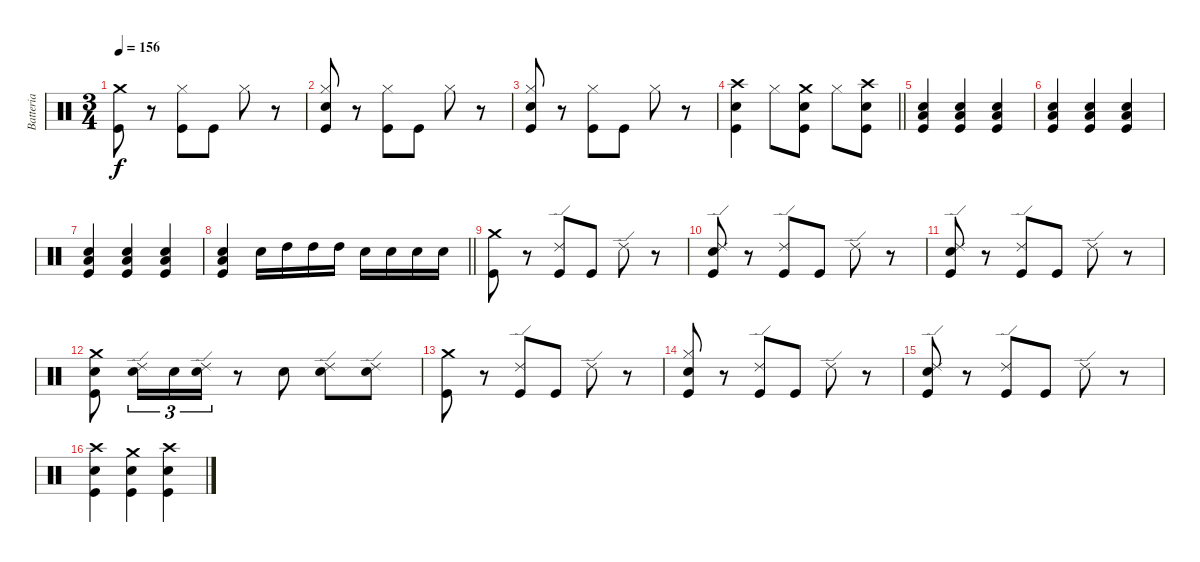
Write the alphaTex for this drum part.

\track ("Batteria" "Batteria") {instrument percussion}
\staff {score}
\articulation defaults
\ts (3 4)
\tempo 156
\clef neutral
\ks c
("Crash medium (hit)" "Kick (hit)").8{dy f} r.8 ("Hi-Hat (closed)" "Kick (hit)").8 "Kick (hit)".8 "Hi-Hat (closed)".8 r.8 |
("Hi-Hat (closed)" "Electric Snare (hit)" "Kick (hit)").8 r.8 ("Hi-Hat (closed)" "Kick (hit)").8 "Kick (hit)".8 "Hi-Hat (closed)".8 r.8 |
("Hi-Hat (closed)" "Electric Snare (hit)" "Kick (hit)").8 r.8 ("Hi-Hat (closed)" "Kick (hit)").8 "Kick (hit)".8 "Hi-Hat (closed)".8 r.8 |
\barLineRight lightlight
("Crash high (hit)" "Electric Snare (hit)" "Kick (hit)").4 "Hi-Hat (closed)".8 ("Crash medium (hit)" "Electric Snare (hit)" "Kick (hit)").8 "Hi-Hat (closed)".8 ("Crash high (hit)" "Electric Snare (hit)" "Kick (hit)").8 |
("Electric Snare (hit)" "Low Tom (hit)" "Kick (hit)").4 ("Electric Snare (hit)" "Low Tom (hit)" "Kick (hit)").4 ("Electric Snare (hit)" "Low Tom (hit)" "Kick (hit)").4 |
("Electric Snare (hit)" "Low Tom (hit)" "Kick (hit)").4 ("Electric Snare (hit)" "Low Tom (hit)" "Kick (hit)").4 ("Electric Snare (hit)" "Low Tom (hit)" "Kick (hit)").4 |
("Electric Snare (hit)" "Low Tom (hit)" "Kick (hit)").4 ("Electric Snare (hit)" "Low Tom (hit)" "Kick (hit)").4 ("Electric Snare (hit)" "Low Tom (hit)" "Kick (hit)").4 |
\barLineRight lightlight
("Electric Snare (hit)" "Low Tom (hit)" "Kick (hit)").4 "Electric Snare (hit)".16 "High Tom (hit)".16 "High Tom (hit)".16 "High Tom (hit)".16 "Electric Snare (hit)".16 "Electric Snare (hit)".16 "Electric Snare (hit)".16 "Electric Snare (hit)".16 |
\section ("" "")
("Crash medium (hit)" "Kick (hit)").8 r.8 ("Ride (edge) 2" "Kick (hit)").8 "Kick (hit)".8 "Ride (edge) 2".8 r.8 |
("Ride (edge) 2" "Electric Snare (hit)" "Kick (hit)").8 r.8 ("Ride (edge) 2" "Kick (hit)").8 "Kick (hit)".8 "Ride (edge) 2".8 r.8 |
("Ride (edge) 2" "Electric Snare (hit)" "Kick (hit)").8 r.8 ("Ride (edge) 2" "Kick (hit)").8 "Kick (hit)".8 "Ride (edge) 2".8 r.8 |
("Crash medium (hit)" "Electric Snare (hit)" "Kick (hit)").8 ("Ride (edge) 2" "Electric Snare (hit)").16{tu (3 2)} "Electric Snare (hit)".16{tu (3 2)} ("Ride (edge) 2" "Electric Snare (hit)").16{tu (3 2)} r.8 "Electric Snare (hit)".8 ("Ride (edge) 2" "Electric Snare (hit)").8 ("Ride (edge) 2" "Electric Snare (hit)").8 |
("Crash medium (hit)" "Kick (hit)").8 r.8 ("Ride (edge) 2" "Kick (hit)").8 "Kick (hit)".8 "Ride (edge) 2".8 r.8 |
("Hi-Hat (closed)" "Electric Snare (hit)" "Kick (hit)").8 r.8 ("Ride (edge) 2" "Kick (hit)").8 "Kick (hit)".8 "Ride (edge) 2".8 r.8 |
("Ride (edge) 2" "Electric Snare (hit)" "Kick (hit)").8 r.8 ("Ride (edge) 2" "Kick (hit)").8 "Kick (hit)".8 "Ride (edge) 2".8 r.8 |
("Crash high (hit)" "Electric Snare (hit)" "Kick (hit)").4 ("Crash medium (hit)" "Electric Snare (hit)" "Kick (hit)").4 ("Crash high (hit)" "Electric Snare (hit)" "Kick (hit)").4
